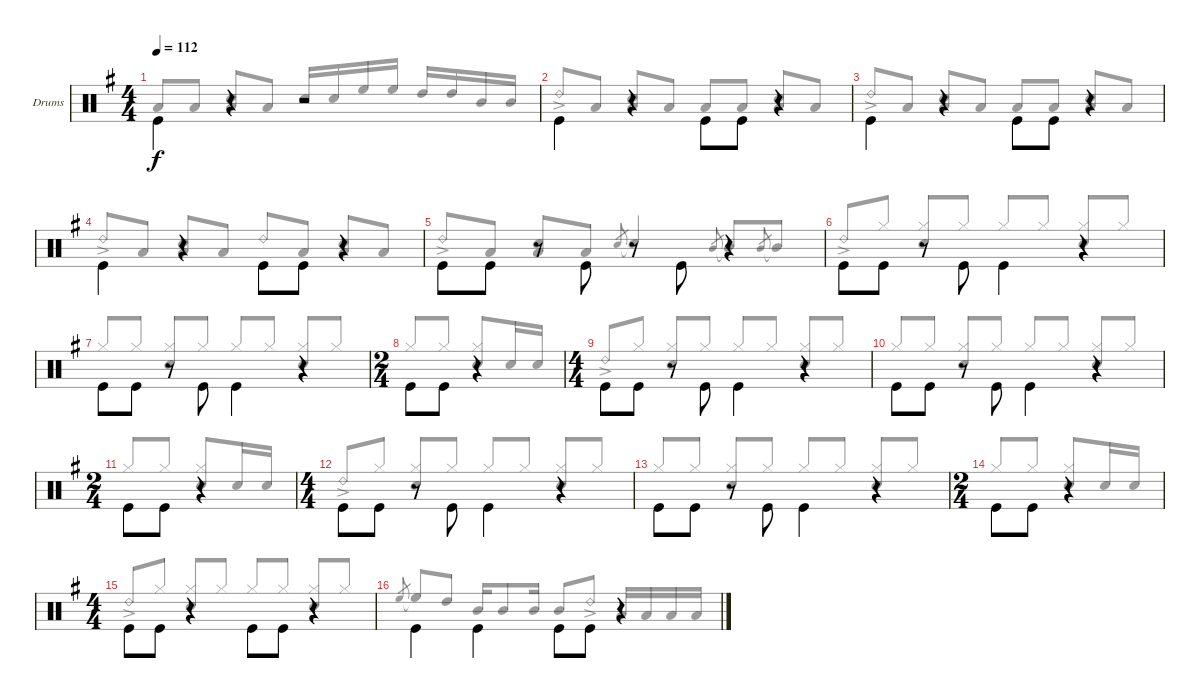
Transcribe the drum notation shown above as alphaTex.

\defaultSystemsLayout 4
\bracketExtendMode groupsimilarinstruments
\firstSystemTrackNameOrientation horizontal
\otherSystemsTrackNameOrientation horizontal
\track ("Drumkit" "Drums") {instrument percussion}
\staff {score}
\articulation defaults
\voice
\ts (4 4)
\tempo 112
\clef neutral
\scale
1.04288
\ks g "Kick (hit)".4{dy f beam invert}
r.4{beam invert} r.2 |
\scale
0.957125 "Kick (hit)".4{beam invert} r.4{beam invert} "Kick (hit)".8{beam invert} "Kick (hit)".8 r.4{beam invert} |
\scale
1.04288 "Kick (hit)".4{beam invert} r.4{beam invert} "Kick (hit)".8{beam invert} "Kick (hit)".8 r.4{beam invert} |
\scale
0.957125 "Kick (hit)".4{beam invert} r.4{beam invert} "Kick (hit)".8{beam invert} "Kick (hit)".8 r.4{beam invert} |
\scale
1.04288 "Kick (hit)".8{beam invert} "Kick (hit)".8 r.8{beam invert} "Kick (hit)".8{beam invert} r.8 "Kick (hit)".8{beam invert} r.4 |
\scale
0.957125 "Kick (hit)".8{beam invert} "Kick (hit)".8 r.8 "Kick (hit)".8{beam invert} "Kick (hit)".4{beam invert} r.4 |
\scale
1.04288 "Kick (hit)".8{beam invert} "Kick (hit)".8 r.8 "Kick (hit)".8{beam invert} "Kick (hit)".4{beam invert} r.4 |
\ts (2 4)
\scale
0.957125 "Kick (hit)".8{beam invert} "Kick (hit)".8 r.4 |
\ts (4 4)
\scale
1.07314 "Kick (hit)".8{beam invert} "Kick (hit)".8 r.8 "Kick (hit)".8{beam invert} "Kick (hit)".4{beam invert} r.4 |
\scale
0.92686 "Kick (hit)".8{beam invert} "Kick (hit)".8 r.8 "Kick (hit)".8{beam invert} "Kick (hit)".4{beam invert} r.4 |
\ts (2 4)
\scale
1.07314 "Kick (hit)".8{beam invert} "Kick (hit)".8 r.4 |
\ts (4 4)
\scale
0.92686 "Kick (hit)".8{beam invert} "Kick (hit)".8 r.8 "Kick (hit)".8{beam invert} "Kick (hit)".4{beam invert} r.4 |
\scale
1.04288 "Kick (hit)".8{beam invert} "Kick (hit)".8 r.8 "Kick (hit)".8{beam invert} "Kick (hit)".4{beam invert} r.4 |
\ts (2 4)
\scale
0.957125 "Kick (hit)".8{beam invert} "Kick (hit)".8 r.4 |
\ts (4 4)
\scale
1.07314 "Kick (hit)".8{beam invert} "Kick (hit)".8 r.4 "Kick (hit)".8{beam invert} "Kick (hit)".8 r.4 |
\scale
0.92686 "Kick (hit)".4{beam invert} "Kick (hit)".4{beam invert} "Kick (hit)".8{beam invert} "Kick (hit)".8 r.4
\voice
\clef neutral
\ottava regular
\simile none
\scale
1.04288
\ks g "Low Tom (hit)".8{dy f beam invert} "Low Tom (hit)".8
("Low Tom (hit)" "Snare (hit) 2").8{beam invert} "Low Tom (hit)".8 "Snare (hit) 2".16{beam invert} "Snare (hit) 2".16 "High Floor Tom (hit)".16 "High Floor Tom (hit)".16 "High Tom (hit)".16{beam invert} "High Tom (hit)".16 "Mid Tom (hit)".16 "Mid Tom (hit)".16 |
\scale
0.957125 "Ride (bell) 2"{ac}.8{beam invert} "Low Tom (hit)".8 ("Low Tom (hit)" "Snare (hit) 2").8{beam invert} "Low Tom (hit)".8 "Low Tom (hit)".8{beam invert} "Low Tom (hit)".8 ("Low Tom (hit)" "Snare (hit) 2").8{beam invert} "Low Tom (hit)".8 |
\scale
1.04288 "Ride (bell) 2"{ac}.8{beam invert} "Low Tom (hit)".8 ("Low Tom (hit)" "Snare (hit) 2").8{beam invert} "Low Tom (hit)".8 "Low Tom (hit)".8{beam invert} "Low Tom (hit)".8 ("Low Tom (hit)" "Snare (hit) 2").8{beam invert} "Low Tom (hit)".8 |
\scale
0.957125 "Ride (bell) 2"{ac}.8{beam invert} "Low Tom (hit)".8 ("Low Tom (hit)" "Snare (hit) 2").8{beam invert} "Low Tom (hit)".8 "Ride (bell) 2".8{beam invert} "Low Tom (hit)".8 ("Low Tom (hit)" "Snare (hit) 2").8{beam invert} "Low Tom (hit)".8 |
\scale
1.04288 "Ride (bell) 2"{ac}.8{beam invert} "Low Tom (hit)".8 ("Low Tom (hit)" "Snare (hit) 2").8{beam invert} "Low Tom (hit)".8 "Snare (hit) 2".8{gr beam invert} "Snare (hit) 2"{t}.4{beam invert} "Mid Tom (hit)".8{gr beam invert} "Mid Tom (hit)"{t}.8{beam invert} "Mid Tom (hit)".8{gr beam invert} "Mid Tom (hit)"{t}.8{beam invert} |
\scale
0.957125 "Ride (bell) 2"{ac}.8{beam invert} "Hi-Hat (closed)".8 ("Hi-Hat (closed)" "Snare (hit) 2").8{beam invert} "Hi-Hat (closed)".8 "Hi-Hat (closed)".8{beam invert} "Hi-Hat (closed)".8 ("Hi-Hat (closed)" "Snare (hit) 2").8{beam invert} "Hi-Hat (closed)".8 |
\scale
1.04288 "Hi-Hat (closed)".8{beam invert} "Hi-Hat (closed)".8 ("Hi-Hat (closed)" "Snare (hit) 2").8{beam invert} "Hi-Hat (closed)".8 "Hi-Hat (closed)".8{beam invert} "Hi-Hat (closed)".8 ("Hi-Hat (closed)" "Snare (hit) 2").8{beam invert} "Hi-Hat (closed)".8 |
\scale
0.957125 "Hi-Hat (closed)".8{beam invert} "Hi-Hat (closed)".8 ("Snare (hit) 2" "Hi-Hat (closed)").8{beam invert} "Snare (hit) 2".16 "Snare (hit) 2".16 |
\scale
1.07314 "Ride (bell) 2"{ac}.8{beam invert} "Hi-Hat (closed)".8 ("Hi-Hat (closed)" "Snare (hit) 2").8{beam invert} "Hi-Hat (closed)".8 "Hi-Hat (closed)".8{beam invert} "Hi-Hat (closed)".8 ("Hi-Hat (closed)" "Snare (hit) 2").8{beam invert} "Hi-Hat (closed)".8 |
\scale
0.92686 "Hi-Hat (closed)".8{beam invert} "Hi-Hat (closed)".8 ("Hi-Hat (closed)" "Snare (hit) 2").8{beam invert} "Hi-Hat (closed)".8 "Hi-Hat (closed)".8{beam invert} "Hi-Hat (closed)".8 ("Hi-Hat (closed)" "Snare (hit) 2").8{beam invert} "Hi-Hat (closed)".8 |
\scale
1.07314 "Hi-Hat (closed)".8{beam invert} "Hi-Hat (closed)".8 ("Snare (hit) 2" "Hi-Hat (closed)").8{beam invert} "Snare (hit) 2".16 "Snare (hit) 2".16 |
\scale
0.92686 "Ride (bell) 2"{ac}.8{beam invert} "Hi-Hat (closed)".8 ("Hi-Hat (closed)" "Snare (hit) 2").8{beam invert} "Hi-Hat (closed)".8 "Hi-Hat (closed)".8{beam invert} "Hi-Hat (closed)".8 ("Hi-Hat (closed)" "Snare (hit) 2").8{beam invert} "Hi-Hat (closed)".8 |
\scale
1.04288 "Hi-Hat (closed)".8{beam invert} "Hi-Hat (closed)".8 ("Hi-Hat (closed)" "Snare (hit) 2").8{beam invert} "Hi-Hat (closed)".8 "Hi-Hat (closed)".8{beam invert} "Hi-Hat (closed)".8 ("Hi-Hat (closed)" "Snare (hit) 2").8{beam invert} "Hi-Hat (closed)".8 |
\scale
0.957125 "Hi-Hat (closed)".8{beam invert} "Hi-Hat (closed)".8 ("Snare (hit) 2" "Hi-Hat (closed)").8{beam invert} "Snare (hit) 2".16 "Snare (hit) 2".16 |
\scale
1.07314 "Ride (bell) 2"{ac}.8{beam invert} "Hi-Hat (closed)".8 ("Hi-Hat (closed)" "Snare (hit) 2").8{beam invert} "Hi-Hat (closed)".8 "Hi-Hat (closed)".8{beam invert} "Hi-Hat (closed)".8 ("Hi-Hat (closed)" "Snare (hit) 2").8{beam invert} "Hi-Hat (closed)".8 |
\scale
0.92686 "High Floor Tom (hit)".8{gr beam invert} "High Floor Tom (hit)"{t}.8{beam invert} "High Tom (hit)".8 "Mid Tom (hit)".16{beam invert} "Mid Tom (hit)".8 "Mid Tom (hit)".16 "Mid Tom (hit)".8{beam invert} "Ride (bell) 2"{ac}.8 "Low Tom (hit)".16{beam invert} "Low Tom (hit)".16 "Low Tom (hit)".16 "Low Tom (hit)".16
